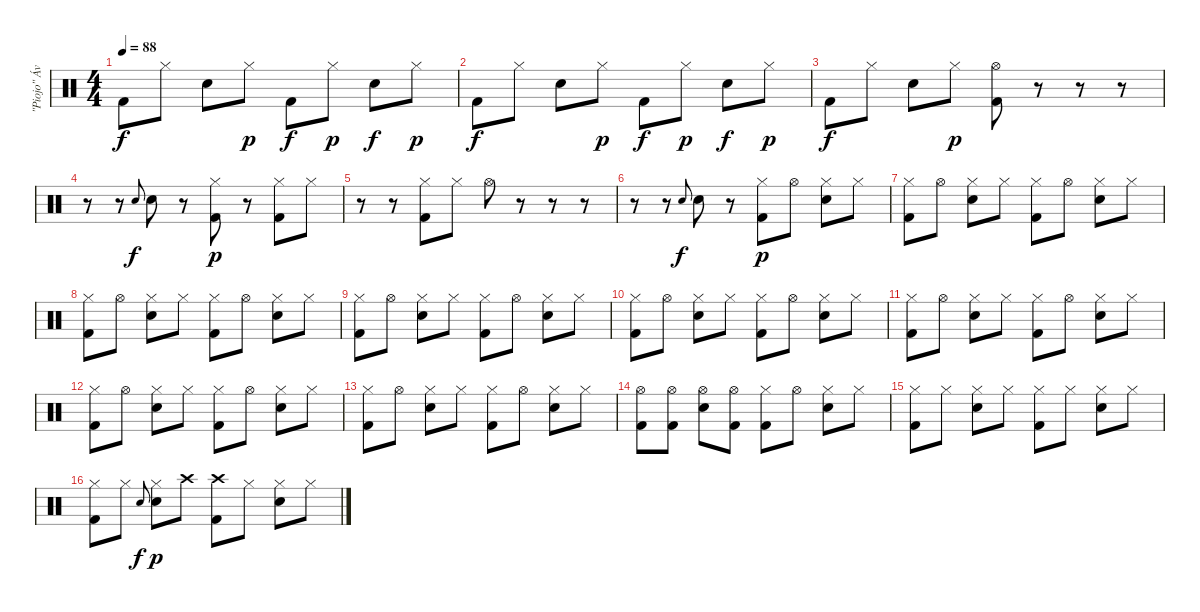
\track ("\"Piojo\" Ávalos" "\"Piojo\" Áv") {instrument percussion}
\staff {score}
\articulation defaults
\ts (4 4)
\tempo 88
\clef neutral
\ks c "Kick (hit) 2".8{dy f} "Hi-Hat (closed)".8 "Snare (hit) 2".8 "Hi-Hat (closed)".8{dy p} "Kick (hit) 2".8{dy f} "Hi-Hat (closed)".8{dy p} "Snare (hit) 2".8{dy f} "Hi-Hat (closed)".8{dy p}
|
"Kick (hit) 2".8{dy f} "Hi-Hat (closed)".8 "Snare (hit) 2".8 "Hi-Hat (closed)".8{dy p} "Kick (hit) 2".8{dy f} "Hi-Hat (closed)".8{dy p} "Snare (hit) 2".8{dy f} "Hi-Hat (closed)".8{dy p} |
"Kick (hit) 2".8{dy f} "Hi-Hat (closed)".8 "Snare (hit) 2".8 "Hi-Hat (closed)".8{dy p} ("Hi-Hat (open)" "Kick (hit) 2").8 r.8 r.8 r.8 |
r.8 r.8 "Snare (hit) 2".8{gr onbeat dy f} "Snare (hit) 2".8 r.8 ("Hi-Hat (closed)" "Kick (hit) 2").8{dy p} r.8 ("Hi-Hat (closed)" "Kick (hit) 2").8 "Hi-Hat (closed)".8 |
r.8 r.8 ("Hi-Hat (closed)" "Kick (hit) 2").8 "Hi-Hat (closed)".8 "Hi-Hat (open)".8 r.8 r.8 r.8 |
r.8 r.8 "Snare (hit) 2".8{gr onbeat dy f} "Snare (hit) 2".8 r.8 ("Hi-Hat (closed)" "Kick (hit) 2").8{dy p} "Hi-Hat (open)".8 ("Hi-Hat (closed)" "Snare (hit) 2").8 "Hi-Hat (closed)".8 |
("Hi-Hat (closed)" "Kick (hit) 2").8 "Hi-Hat (open)".8 ("Hi-Hat (closed)" "Snare (hit) 2").8 "Hi-Hat (closed)".8 ("Hi-Hat (closed)" "Kick (hit) 2").8 "Hi-Hat (open)".8 ("Hi-Hat (closed)" "Snare (hit) 2").8 "Hi-Hat (closed)".8 |
("Hi-Hat (closed)" "Kick (hit) 2").8 "Hi-Hat (open)".8 ("Hi-Hat (closed)" "Snare (hit) 2").8 "Hi-Hat (closed)".8 ("Hi-Hat (closed)" "Kick (hit) 2").8 "Hi-Hat (open)".8 ("Hi-Hat (closed)" "Snare (hit) 2").8 "Hi-Hat (closed)".8 |
("Hi-Hat (closed)" "Kick (hit) 2").8 "Hi-Hat (open)".8 ("Hi-Hat (closed)" "Snare (hit) 2").8 "Hi-Hat (closed)".8 ("Hi-Hat (closed)" "Kick (hit) 2").8 "Hi-Hat (open)".8 ("Hi-Hat (closed)" "Snare (hit) 2").8 "Hi-Hat (closed)".8 |
("Hi-Hat (closed)" "Kick (hit) 2").8 "Hi-Hat (open)".8 ("Hi-Hat (closed)" "Snare (hit) 2").8 "Hi-Hat (closed)".8 ("Hi-Hat (closed)" "Kick (hit) 2").8 "Hi-Hat (open)".8 ("Hi-Hat (closed)" "Snare (hit) 2").8 "Hi-Hat (closed)".8 |
("Hi-Hat (closed)" "Kick (hit) 2").8 "Hi-Hat (open)".8 ("Hi-Hat (closed)" "Snare (hit) 2").8 "Hi-Hat (closed)".8 ("Hi-Hat (closed)" "Kick (hit) 2").8 "Hi-Hat (open)".8 ("Hi-Hat (closed)" "Snare (hit) 2").8 "Hi-Hat (closed)".8 |
("Hi-Hat (closed)" "Kick (hit) 2").8 "Hi-Hat (open)".8 ("Hi-Hat (closed)" "Snare (hit) 2").8 "Hi-Hat (closed)".8 ("Hi-Hat (closed)" "Kick (hit) 2").8 "Hi-Hat (open)".8 ("Hi-Hat (closed)" "Snare (hit) 2").8 "Hi-Hat (closed)".8 |
("Hi-Hat (closed)" "Kick (hit) 2").8 "Hi-Hat (open)".8 ("Hi-Hat (closed)" "Snare (hit) 2").8 "Hi-Hat (closed)".8 ("Hi-Hat (closed)" "Kick (hit) 2").8 "Hi-Hat (open)".8 ("Hi-Hat (closed)" "Snare (hit) 2").8 "Hi-Hat (closed)".8 |
("Hi-Hat (open)" "Kick (hit) 2").8 ("Hi-Hat (open)" "Kick (hit) 2").8 ("Hi-Hat (open)" "Snare (hit) 2").8 ("Hi-Hat (open)" "Kick (hit) 2").8 ("Hi-Hat (closed)" "Kick (hit) 2").8 "Hi-Hat (open)".8 ("Hi-Hat (closed)" "Snare (hit) 2").8 "Hi-Hat (closed)".8 |
("Hi-Hat (closed)" "Kick (hit) 2").8 "Hi-Hat (closed)".8 ("Hi-Hat (closed)" "Snare (hit) 2").8 "Hi-Hat (closed)".8 ("Hi-Hat (closed)" "Kick (hit) 2").8 "Hi-Hat (closed)".8 ("Hi-Hat (closed)" "Snare (hit) 2").8 "Hi-Hat (closed)".8 |
("Hi-Hat (closed)" "Kick (hit) 2").8 "Hi-Hat (closed)".8 "Snare (hit) 2".8{gr onbeat dy f} ("Hi-Hat (closed)" "Snare (hit) 2").8{dy p} "Crash high (hit)".8 ("Crash high (hit)" "Kick (hit) 2").8 "Hi-Hat (closed)".8 ("Hi-Hat (closed)" "Snare (hit) 2").8 "Hi-Hat (closed)".8
